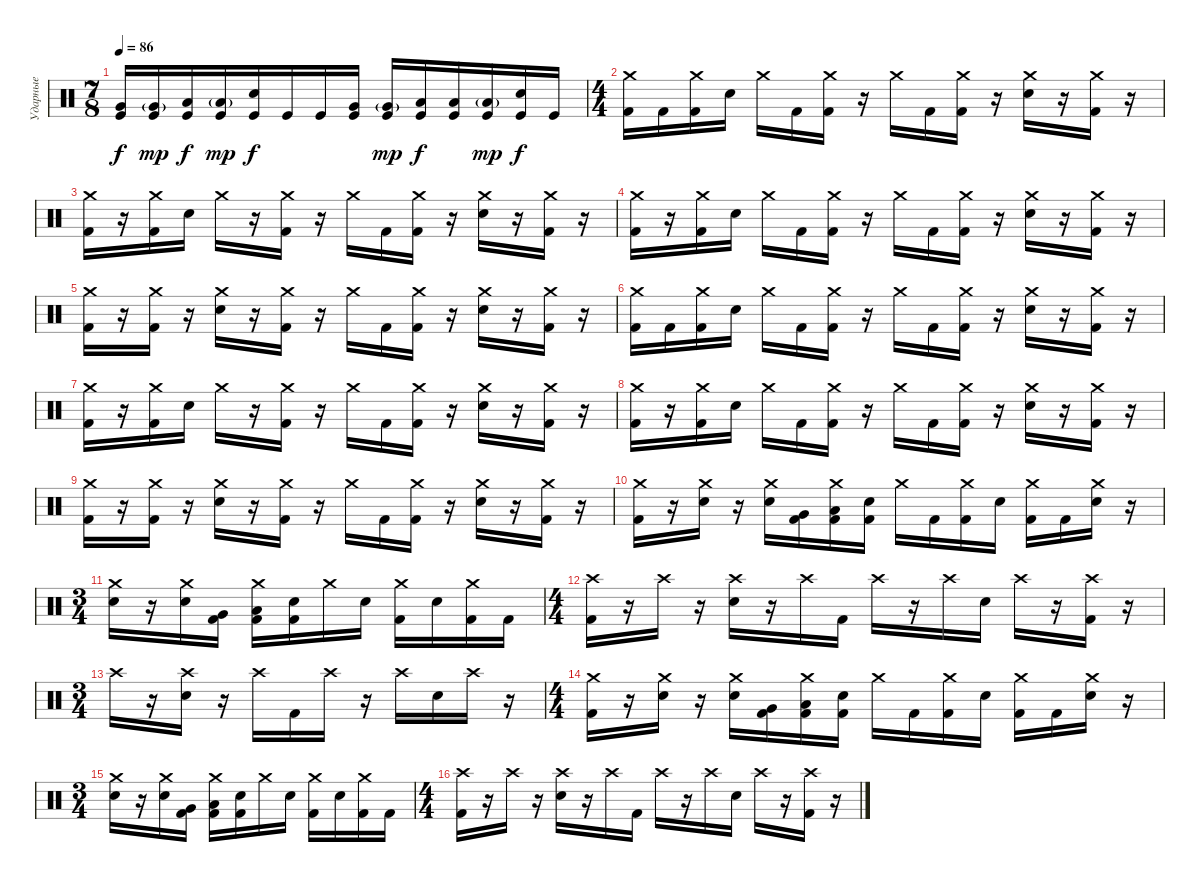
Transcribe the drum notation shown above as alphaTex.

\track ("Ударные" "Ударные") {instrument percussion}
\staff {score}
\articulation defaults
\ts (7 8)
\tempo 86
\clef neutral
\ks c
("Very Low Tom (hit)" "Kick (hit)").16{dy f} ("Very Low Tom (hit)"{g} "Kick (hit)").16{dy mp} ("Low Floor Tom (hit)" "Kick (hit)").16{dy f} ("Low Floor Tom (hit)"{g} "Kick (hit)").16{dy mp} ("Electric Snare (hit)" "Kick (hit)").16{dy f} "Kick (hit)".16 "Kick (hit)".16 ("Very Low Tom (hit)" "Kick (hit)").16 ("Very Low Tom (hit)"{g} "Kick (hit)").16{dy mp} ("Low Floor Tom (hit)" "Kick (hit)").16{dy f} ("Low Floor Tom (hit)" "Kick (hit)").16 ("Low Floor Tom (hit)"{g} "Kick (hit)").16{dy mp} ("Electric Snare (hit)" "Kick (hit)").16{dy f} "Kick (hit)".16 |
\ts (4 4)
("Crash medium (hit)" "Kick (hit) 2").16 "Kick (hit) 2".16 ("Crash medium (hit)" "Kick (hit) 2").16 "Electric Snare (hit)".16 "Crash medium (hit)".16 "Kick (hit) 2".16 ("Crash medium (hit)" "Kick (hit) 2").16 r.16 "Crash medium (hit)".16 "Kick (hit) 2".16 ("Crash medium (hit)" "Kick (hit) 2").16 r.16 ("Crash medium (hit)" "Electric Snare (hit)").16 r.16 ("Crash medium (hit)" "Kick (hit) 2").16 r.16 |
("Crash medium (hit)" "Kick (hit) 2").16 r.16 ("Crash medium (hit)" "Kick (hit) 2").16 "Electric Snare (hit)".16 "Crash medium (hit)".16 r.16 ("Crash medium (hit)" "Kick (hit) 2").16 r.16 "Crash medium (hit)".16 "Kick (hit) 2".16 ("Crash medium (hit)" "Kick (hit) 2").16 r.16 ("Crash medium (hit)" "Electric Snare (hit)").16 r.16 ("Crash medium (hit)" "Kick (hit) 2").16 r.16 |
("Crash medium (hit)" "Kick (hit) 2").16 r.16 ("Crash medium (hit)" "Kick (hit) 2").16 "Electric Snare (hit)".16 "Crash medium (hit)".16 "Kick (hit) 2".16 ("Crash medium (hit)" "Kick (hit) 2").16 r.16 "Crash medium (hit)".16 "Kick (hit) 2".16 ("Crash medium (hit)" "Kick (hit) 2").16 r.16 ("Crash medium (hit)" "Electric Snare (hit)").16 r.16 ("Crash medium (hit)" "Kick (hit) 2").16 r.16 |
("Crash medium (hit)" "Kick (hit) 2").16 r.16 ("Crash medium (hit)" "Kick (hit) 2").16 r.16 ("Crash medium (hit)" "Electric Snare (hit)").16 r.16 ("Crash medium (hit)" "Kick (hit) 2").16 r.16 "Crash medium (hit)".16 "Kick (hit) 2".16 ("Crash medium (hit)" "Kick (hit) 2").16 r.16 ("Crash medium (hit)" "Electric Snare (hit)").16 r.16 ("Crash medium (hit)" "Kick (hit) 2").16 r.16 |
("Crash medium (hit)" "Kick (hit) 2").16 "Kick (hit) 2".16 ("Crash medium (hit)" "Kick (hit) 2").16 "Electric Snare (hit)".16 "Crash medium (hit)".16 "Kick (hit) 2".16 ("Crash medium (hit)" "Kick (hit) 2").16 r.16 "Crash medium (hit)".16 "Kick (hit) 2".16 ("Crash medium (hit)" "Kick (hit) 2").16 r.16 ("Crash medium (hit)" "Electric Snare (hit)").16 r.16 ("Crash medium (hit)" "Kick (hit) 2").16 r.16 |
("Crash medium (hit)" "Kick (hit) 2").16 r.16 ("Crash medium (hit)" "Kick (hit) 2").16 "Electric Snare (hit)".16 "Crash medium (hit)".16 r.16 ("Crash medium (hit)" "Kick (hit) 2").16 r.16 "Crash medium (hit)".16 "Kick (hit) 2".16 ("Crash medium (hit)" "Kick (hit) 2").16 r.16 ("Crash medium (hit)" "Electric Snare (hit)").16 r.16 ("Crash medium (hit)" "Kick (hit) 2").16 r.16 |
("Crash medium (hit)" "Kick (hit) 2").16 r.16 ("Crash medium (hit)" "Kick (hit) 2").16 "Electric Snare (hit)".16 "Crash medium (hit)".16 "Kick (hit) 2".16 ("Crash medium (hit)" "Kick (hit) 2").16 r.16 "Crash medium (hit)".16 "Kick (hit) 2".16 ("Crash medium (hit)" "Kick (hit) 2").16 r.16 ("Crash medium (hit)" "Electric Snare (hit)").16 r.16 ("Crash medium (hit)" "Kick (hit) 2").16 r.16 |
("Crash medium (hit)" "Kick (hit) 2").16 r.16 ("Crash medium (hit)" "Kick (hit) 2").16 r.16 ("Crash medium (hit)" "Electric Snare (hit)").16 r.16 ("Crash medium (hit)" "Kick (hit) 2").16 r.16 "Crash medium (hit)".16 "Kick (hit) 2".16 ("Crash medium (hit)" "Kick (hit) 2").16 r.16 ("Crash medium (hit)" "Electric Snare (hit)").16 r.16 ("Crash medium (hit)" "Kick (hit) 2").16 r.16 |
("Crash medium (hit)" "Kick (hit) 2").16 r.16 ("Crash medium (hit)" "Electric Snare (hit)").16 r.16 ("Crash medium (hit)" "Electric Snare (hit)").16 ("Very Low Tom (hit)" "Kick (hit) 2").16 ("Crash medium (hit)" "Low Floor Tom (hit)" "Kick (hit) 2").16 ("Electric Snare (hit)" "Kick (hit) 2").16 "Crash medium (hit)".16 "Kick (hit) 2".16 ("Crash medium (hit)" "Kick (hit) 2").16 "Electric Snare (hit)".16 ("Crash medium (hit)" "Kick (hit) 2").16 "Kick (hit) 2".16 ("Crash medium (hit)" "Electric Snare (hit)").16 r.16 |
\ts (3 4)
("Crash medium (hit)" "Electric Snare (hit)").16 r.16 ("Crash medium (hit)" "Electric Snare (hit)").16 ("Very Low Tom (hit)" "Kick (hit) 2").16 ("Crash medium (hit)" "Low Floor Tom (hit)" "Kick (hit) 2").16 ("Electric Snare (hit)" "Kick (hit) 2").16 "Crash medium (hit)".16 "Electric Snare (hit)".16 ("Crash medium (hit)" "Kick (hit) 2").16 "Electric Snare (hit)".16 ("Crash medium (hit)" "Kick (hit) 2").16 "Kick (hit) 2".16 |
\ts (4 4)
("Crash high (hit)" "Kick (hit) 2").16 r.16 "Crash high (hit)".16 r.16 ("Crash high (hit)" "Electric Snare (hit)").16 r.16 "Crash high (hit)".16 "Kick (hit) 2".16 "Crash high (hit)".16 r.16 "Crash high (hit)".16 "Electric Snare (hit)".16 "Crash high (hit)".16 r.16 ("Crash high (hit)" "Kick (hit) 2").16 r.16 |
\ts (3 4)
"Crash high (hit)".16 r.16 ("Crash high (hit)" "Electric Snare (hit)").16 r.16 "Crash high (hit)".16 "Kick (hit) 2".16 "Crash high (hit)".16 r.16 "Crash high (hit)".16 "Electric Snare (hit)".16 "Crash high (hit)".16 r.16 |
\ts (4 4)
("Crash medium (hit)" "Kick (hit) 2").16 r.16 ("Crash medium (hit)" "Electric Snare (hit)").16 r.16 ("Crash medium (hit)" "Electric Snare (hit)").16 ("Very Low Tom (hit)" "Kick (hit) 2").16 ("Crash medium (hit)" "Low Floor Tom (hit)" "Kick (hit) 2").16 ("Electric Snare (hit)" "Kick (hit) 2").16 "Crash medium (hit)".16 "Kick (hit) 2".16 ("Crash medium (hit)" "Kick (hit) 2").16 "Electric Snare (hit)".16 ("Crash medium (hit)" "Kick (hit) 2").16 "Kick (hit) 2".16 ("Crash medium (hit)" "Electric Snare (hit)").16 r.16 |
\ts (3 4)
("Crash medium (hit)" "Electric Snare (hit)").16 r.16 ("Crash medium (hit)" "Electric Snare (hit)").16 ("Very Low Tom (hit)" "Kick (hit) 2").16 ("Crash medium (hit)" "Low Floor Tom (hit)" "Kick (hit) 2").16 ("Electric Snare (hit)" "Kick (hit) 2").16 "Crash medium (hit)".16 "Electric Snare (hit)".16 ("Crash medium (hit)" "Kick (hit) 2").16 "Electric Snare (hit)".16 ("Crash medium (hit)" "Kick (hit) 2").16 "Kick (hit) 2".16 |
\ts (4 4)
("Crash high (hit)" "Kick (hit) 2").16 r.16 "Crash high (hit)".16 r.16 ("Crash high (hit)" "Electric Snare (hit)").16 r.16 "Crash high (hit)".16 "Kick (hit) 2".16 "Crash high (hit)".16 r.16 "Crash high (hit)".16 "Electric Snare (hit)".16 "Crash high (hit)".16 r.16 ("Crash high (hit)" "Kick (hit) 2").16 r.16
